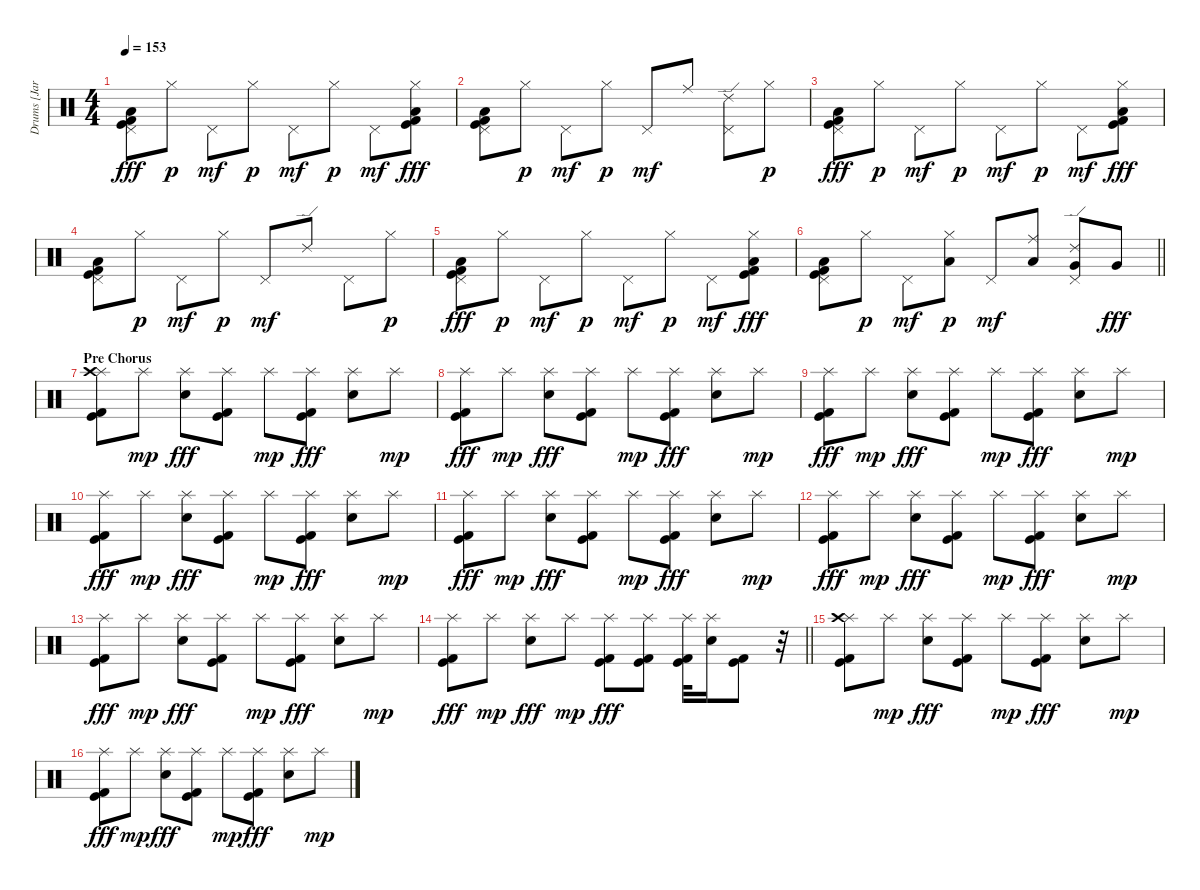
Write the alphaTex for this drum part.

\track ("Drums [Jari]" "Drums [Jar") {instrument percussion}
\staff {score}
\articulation defaults
\ts (4 4)
\tempo 153
\clef neutral
\ks c
("Kick (hit) 2" "Low Floor Tom (hit)" "Pedal Hi-Hat (hit)" "Kick (hit)").8{dy fff} "Hi-Hat (closed)".8{dy p} "Pedal Hi-Hat (hit)".8{dy mf} "Hi-Hat (closed)".8{dy p} "Pedal Hi-Hat (hit)".8{dy mf} "Hi-Hat (closed)".8{dy p} "Pedal Hi-Hat (hit)".8{dy mf} ("Kick (hit) 2" "Low Floor Tom (hit)" "Hi-Hat (closed)" "Kick (hit)").8{dy fff} |
("Kick (hit) 2" "Low Floor Tom (hit)" "Pedal Hi-Hat (hit)" "Kick (hit)").8 "Hi-Hat (closed)".8{dy p} "Pedal Hi-Hat (hit)".8{dy mf} "Hi-Hat (closed)".8{dy p} "Pedal Hi-Hat (hit)".8{dy mf} "Ride (middle)".8 ("Ride (edge) 2" "Pedal Hi-Hat (hit)").8 "Hi-Hat (closed)".8{dy p} |
("Kick (hit) 2" "Low Floor Tom (hit)" "Pedal Hi-Hat (hit)" "Kick (hit)").8{dy fff} "Hi-Hat (closed)".8{dy p} "Pedal Hi-Hat (hit)".8{dy mf} "Hi-Hat (closed)".8{dy p} "Pedal Hi-Hat (hit)".8{dy mf} "Hi-Hat (closed)".8{dy p} "Pedal Hi-Hat (hit)".8{dy mf} ("Kick (hit) 2" "Low Floor Tom (hit)" "Hi-Hat (closed)" "Kick (hit)").8{dy fff} |
("Kick (hit) 2" "Low Floor Tom (hit)" "Pedal Hi-Hat (hit)" "Kick (hit)").8 "Hi-Hat (closed)".8{dy p} "Pedal Hi-Hat (hit)".8{dy mf} "Hi-Hat (closed)".8{dy p} "Pedal Hi-Hat (hit)".8{dy mf} "Ride (edge) 2".8 "Pedal Hi-Hat (hit)".8 "Hi-Hat (closed)".8{dy p} |
("Kick (hit) 2" "Low Floor Tom (hit)" "Pedal Hi-Hat (hit)" "Kick (hit)").8{dy fff} "Hi-Hat (closed)".8{dy p} "Pedal Hi-Hat (hit)".8{dy mf} "Hi-Hat (closed)".8{dy p} "Pedal Hi-Hat (hit)".8{dy mf} "Hi-Hat (closed)".8{dy p} "Pedal Hi-Hat (hit)".8{dy mf} ("Kick (hit) 2" "Low Floor Tom (hit)" "Hi-Hat (closed)" "Kick (hit)").8{dy fff} |
\barLineRight lightlight
("Kick (hit) 2" "Low Floor Tom (hit)" "Pedal Hi-Hat (hit)" "Kick (hit)").8 "Hi-Hat (closed)".8{dy p} "Pedal Hi-Hat (hit)".8{dy mf} ("Low Tom (hit)" "Hi-Hat (closed)").8{dy p} "Pedal Hi-Hat (hit)".8{dy mf} ("Low Tom (hit)" "Ride (middle)").8 ("Very Low Tom (hit)" "Ride (edge) 2" "Pedal Hi-Hat (hit)").8 "Very Low Tom (hit)".8{dy fff} |
\section ("" "Pre Chorus")
("Kick (hit) 2" "Splash (hit)" "Crash high (hit)" "Kick (hit)").8 "Splash (hit)".8{dy mp} ("Splash (hit)" "Electric Snare (hit)").8{dy fff} ("Kick (hit) 2" "Splash (hit)" "Kick (hit)").8 "Splash (hit)".8{dy mp} ("Kick (hit) 2" "Splash (hit)" "Kick (hit)").8{dy fff} ("Splash (hit)" "Electric Snare (hit)").8 "Splash (hit)".8{dy mp} |
("Kick (hit) 2" "Splash (hit)" "Kick (hit)").8{dy fff} "Splash (hit)".8{dy mp} ("Splash (hit)" "Electric Snare (hit)").8{dy fff} ("Kick (hit) 2" "Splash (hit)" "Kick (hit)").8 "Splash (hit)".8{dy mp} ("Kick (hit) 2" "Splash (hit)" "Kick (hit)").8{dy fff} ("Splash (hit)" "Electric Snare (hit)").8 "Splash (hit)".8{dy mp} |
("Kick (hit) 2" "Splash (hit)" "Kick (hit)").8{dy fff} "Splash (hit)".8{dy mp} ("Splash (hit)" "Electric Snare (hit)").8{dy fff} ("Kick (hit) 2" "Splash (hit)" "Kick (hit)").8 "Splash (hit)".8{dy mp} ("Kick (hit) 2" "Splash (hit)" "Kick (hit)").8{dy fff} ("Splash (hit)" "Electric Snare (hit)").8 "Splash (hit)".8{dy mp} |
("Kick (hit) 2" "Splash (hit)" "Kick (hit)").8{dy fff} "Splash (hit)".8{dy mp} ("Splash (hit)" "Electric Snare (hit)").8{dy fff} ("Kick (hit) 2" "Splash (hit)" "Kick (hit)").8 "Splash (hit)".8{dy mp} ("Kick (hit) 2" "Splash (hit)" "Kick (hit)").8{dy fff} ("Splash (hit)" "Electric Snare (hit)").8 "Splash (hit)".8{dy mp} |
("Kick (hit) 2" "Splash (hit)" "Kick (hit)").8{dy fff} "Splash (hit)".8{dy mp} ("Splash (hit)" "Electric Snare (hit)").8{dy fff} ("Kick (hit) 2" "Splash (hit)" "Kick (hit)").8 "Splash (hit)".8{dy mp} ("Kick (hit) 2" "Splash (hit)" "Kick (hit)").8{dy fff} ("Splash (hit)" "Electric Snare (hit)").8 "Splash (hit)".8{dy mp} |
("Kick (hit) 2" "Splash (hit)" "Kick (hit)").8{dy fff} "Splash (hit)".8{dy mp} ("Splash (hit)" "Electric Snare (hit)").8{dy fff} ("Kick (hit) 2" "Splash (hit)" "Kick (hit)").8 "Splash (hit)".8{dy mp} ("Kick (hit) 2" "Splash (hit)" "Kick (hit)").8{dy fff} ("Splash (hit)" "Electric Snare (hit)").8 "Splash (hit)".8{dy mp} |
("Kick (hit) 2" "Splash (hit)" "Kick (hit)").8{dy fff} "Splash (hit)".8{dy mp} ("Splash (hit)" "Electric Snare (hit)").8{dy fff} ("Kick (hit) 2" "Splash (hit)" "Kick (hit)").8 "Splash (hit)".8{dy mp} ("Kick (hit) 2" "Splash (hit)" "Kick (hit)").8{dy fff} ("Splash (hit)" "Electric Snare (hit)").8 "Splash (hit)".8{dy mp} |
\barLineRight lightlight
("Kick (hit) 2" "Splash (hit)" "Kick (hit)").8{dy fff} "Splash (hit)".8{dy mp} ("Splash (hit)" "Electric Snare (hit)").8{dy fff} "Splash (hit)".8{dy mp} ("Kick (hit) 2" "Splash (hit)" "Kick (hit)").8{dy fff} ("Kick (hit) 2" "Splash (hit)" "Kick (hit)").8 ("Kick (hit) 2" "Splash (hit)" "Kick (hit)").32 ("Splash (hit)" "Electric Snare (hit)").16 ("Kick (hit) 2" "Kick (hit)").8 r.32 |
("Kick (hit) 2" "Splash (hit)" "Crash high (hit)" "Kick (hit)").8 "Splash (hit)".8{dy mp} ("Splash (hit)" "Electric Snare (hit)").8{dy fff} ("Kick (hit) 2" "Splash (hit)" "Kick (hit)").8 "Splash (hit)".8{dy mp} ("Kick (hit) 2" "Splash (hit)" "Kick (hit)").8{dy fff} ("Splash (hit)" "Electric Snare (hit)").8 "Splash (hit)".8{dy mp} |
("Kick (hit) 2" "Splash (hit)" "Kick (hit)").8{dy fff} "Splash (hit)".8{dy mp} ("Splash (hit)" "Electric Snare (hit)").8{dy fff} ("Kick (hit) 2" "Splash (hit)" "Kick (hit)").8 "Splash (hit)".8{dy mp} ("Kick (hit) 2" "Splash (hit)" "Kick (hit)").8{dy fff} ("Splash (hit)" "Electric Snare (hit)").8 "Splash (hit)".8{dy mp}
